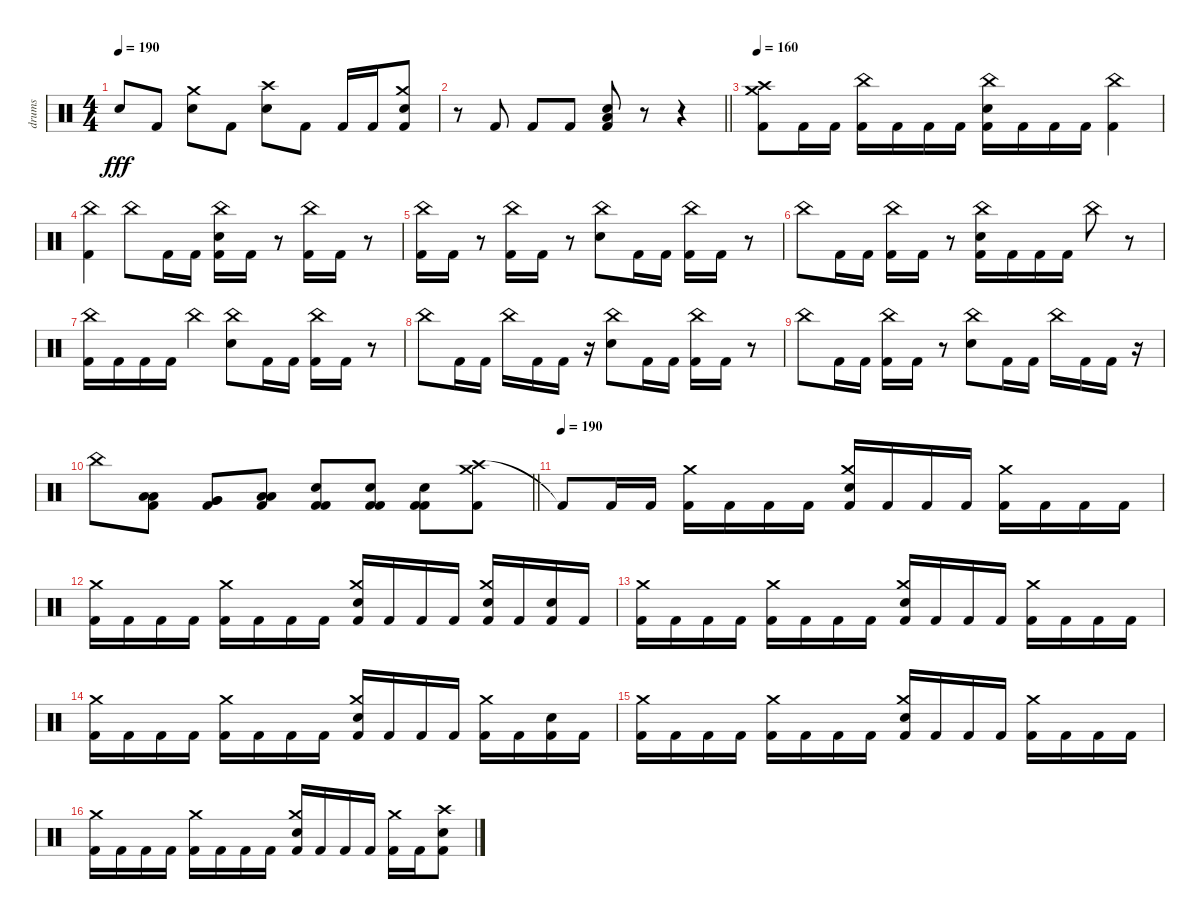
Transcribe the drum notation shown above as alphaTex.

\track ("drums" "drums") {instrument percussion}
\staff {score}
\articulation defaults
\ts (4 4)
\tempo 190
\clef neutral
\ks c "Snare (hit)"{t}.8{dy fff} "Kick (hit) 2".8
("Crash medium (hit)" "Electric Snare (hit)").8 "Kick (hit) 2".8 ("Crash high (hit)" "Electric Snare (hit)").8 "Kick (hit) 2".8 "Kick (hit) 2".16 "Kick (hit) 2".16 ("Crash medium (hit)" "Electric Snare (hit)" "Kick (hit) 2").8 |
\barLineRight lightlight
r.8 "Kick (hit) 2".8 "Kick (hit) 2".8 "Kick (hit) 2".8 ("Low Floor Tom (hit)" "Electric Snare (hit)" "Kick (hit) 2").8 r.8 r.4 |
\section ("" "")
\tempo 160
("Crash medium (hit)" "Crash high (hit)" "Kick (hit) 2").8 "Kick (hit) 2".16 "Kick (hit) 2".16 ("China (hit)" "Kick (hit) 2").16 "Kick (hit) 2".16 "Kick (hit) 2".16 "Kick (hit) 2".16 ("China (hit)" "Electric Snare (hit)" "Kick (hit) 2").16 "Kick (hit) 2".16 "Kick (hit) 2".16 "Kick (hit) 2".16 ("China (hit)" "Kick (hit) 2").4 |
("China (hit)" "Kick (hit) 2").4 "China (hit)".8 "Kick (hit) 2".16 "Kick (hit) 2".16 ("China (hit)" "Electric Snare (hit)" "Kick (hit) 2").16 "Kick (hit) 2".16 r.8 ("China (hit)" "Kick (hit) 2").16 "Kick (hit) 2".16 r.8 |
("China (hit)" "Kick (hit) 2").16 "Kick (hit) 2".16 r.8 ("China (hit)" "Kick (hit) 2").16 "Kick (hit) 2".16 r.8 ("China (hit)" "Electric Snare (hit)").8 "Kick (hit) 2".16 "Kick (hit) 2".16 ("China (hit)" "Kick (hit) 2").16 "Kick (hit) 2".16 r.8 |
"China (hit)".8 "Kick (hit) 2".16 "Kick (hit) 2".16 ("China (hit)" "Kick (hit) 2").16 "Kick (hit) 2".16 r.8 ("China (hit)" "Electric Snare (hit)" "Kick (hit) 2").16 "Kick (hit) 2".16 "Kick (hit) 2".16 "Kick (hit) 2".16 "China (hit)".8 r.8 |
("China (hit)" "Kick (hit) 2").16 "Kick (hit) 2".16 "Kick (hit) 2".16 "Kick (hit) 2".16 "China (hit)".4 ("China (hit)" "Electric Snare (hit)").8 "Kick (hit) 2".16 "Kick (hit) 2".16 ("China (hit)" "Kick (hit) 2").16 "Kick (hit) 2".16 r.8 |
"China (hit)".8 "Kick (hit) 2".16 "Kick (hit) 2".16 "China (hit)".16 "Kick (hit) 2".16 "Kick (hit) 2".16 r.16 ("China (hit)" "Electric Snare (hit)").8 "Kick (hit) 2".16 "Kick (hit) 2".16 ("China (hit)" "Kick (hit) 2").16 "Kick (hit) 2".16 r.8 |
"China (hit)".8 "Kick (hit) 2".16 "Kick (hit) 2".16 ("China (hit)" "Kick (hit) 2").16 "Kick (hit) 2".16 r.8 ("China (hit)" "Electric Snare (hit)").8 "Kick (hit) 2".16 "Kick (hit) 2".16 "China (hit)".16 "Kick (hit) 2".16 "Kick (hit) 2".16 r.16 |
\barLineRight lightlight "China (hit)".8
("Low Tom (hit)" "Low Tom (hit)" "Kick (hit) 2").8 ("Very Low Tom (hit)" "Very Low Tom (hit)" "Kick (hit) 2").8 ("Low Floor Tom (hit)" "Low Floor Tom (hit)" "Kick (hit) 2").8 ("Electric Snare (hit)" "Kick (hit) 2" "Kick (hit) 2").8 ("Electric Snare (hit)" "Kick (hit) 2" "Kick (hit) 2").8 ("Electric Snare (hit)" "Kick (hit) 2" "Kick (hit) 2").8 ("Crash high (hit)" "Crash medium (hit)" "Kick (hit) 2").8 |
\section ("" "")
\tempo (190)
"Kick (hit) 2"{t}.8 "Kick (hit) 2".16 "Kick (hit) 2".16 ("Crash medium (hit)" "Kick (hit) 2").16 "Kick (hit) 2".16 "Kick (hit) 2".16 "Kick (hit) 2".16 ("Crash medium (hit)" "Electric Snare (hit)" "Kick (hit) 2").16 "Kick (hit) 2".16 "Kick (hit) 2".16 "Kick (hit) 2".16 ("Crash medium (hit)" "Kick (hit) 2").16 "Kick (hit) 2".16 "Kick (hit) 2".16 "Kick (hit) 2".16 |
("Crash medium (hit)" "Kick (hit) 2").16 "Kick (hit) 2".16 "Kick (hit) 2".16 "Kick (hit) 2".16 ("Crash medium (hit)" "Kick (hit) 2").16 "Kick (hit) 2".16 "Kick (hit) 2".16 "Kick (hit) 2".16 ("Crash medium (hit)" "Electric Snare (hit)" "Kick (hit) 2").16 "Kick (hit) 2".16 "Kick (hit) 2".16 "Kick (hit) 2".16 ("Crash medium (hit)" "Electric Snare (hit)" "Kick (hit) 2").16 "Kick (hit) 2".16 ("Electric Snare (hit)" "Kick (hit) 2").16 "Kick (hit) 2".16 |
("Crash medium (hit)" "Kick (hit) 2").16 "Kick (hit) 2".16 "Kick (hit) 2".16 "Kick (hit) 2".16 ("Crash medium (hit)" "Kick (hit) 2").16 "Kick (hit) 2".16 "Kick (hit) 2".16 "Kick (hit) 2".16 ("Crash medium (hit)" "Electric Snare (hit)" "Kick (hit) 2").16 "Kick (hit) 2".16 "Kick (hit) 2".16 "Kick (hit) 2".16 ("Crash medium (hit)" "Kick (hit) 2").16 "Kick (hit) 2".16 "Kick (hit) 2".16 "Kick (hit) 2".16 |
("Crash medium (hit)" "Kick (hit) 2").16 "Kick (hit) 2".16 "Kick (hit) 2".16 "Kick (hit) 2".16 ("Crash medium (hit)" "Kick (hit) 2").16 "Kick (hit) 2".16 "Kick (hit) 2".16 "Kick (hit) 2".16 ("Crash medium (hit)" "Electric Snare (hit)" "Kick (hit) 2").16 "Kick (hit) 2".16 "Kick (hit) 2".16 "Kick (hit) 2".16 ("Crash medium (hit)" "Kick (hit) 2").16 "Kick (hit) 2".16 ("Electric Snare (hit)" "Kick (hit) 2").16 "Kick (hit) 2".16 |
("Crash medium (hit)" "Kick (hit) 2").16 "Kick (hit) 2".16 "Kick (hit) 2".16 "Kick (hit) 2".16 ("Crash medium (hit)" "Kick (hit) 2").16 "Kick (hit) 2".16 "Kick (hit) 2".16 "Kick (hit) 2".16 ("Crash medium (hit)" "Electric Snare (hit)" "Kick (hit) 2").16 "Kick (hit) 2".16 "Kick (hit) 2".16 "Kick (hit) 2".16 ("Crash medium (hit)" "Kick (hit) 2").16 "Kick (hit) 2".16 "Kick (hit) 2".16 "Kick (hit) 2".16 |
("Crash medium (hit)" "Kick (hit) 2").16 "Kick (hit) 2".16 "Kick (hit) 2".16 "Kick (hit) 2".16 ("Crash medium (hit)" "Kick (hit) 2").16 "Kick (hit) 2".16 "Kick (hit) 2".16 "Kick (hit) 2".16 ("Crash medium (hit)" "Electric Snare (hit)" "Kick (hit) 2").16 "Kick (hit) 2".16 "Kick (hit) 2".16 "Kick (hit) 2".16 ("Crash medium (hit)" "Kick (hit) 2").16 "Kick (hit) 2".16 ("Crash high (hit)" "Electric Snare (hit)" "Kick (hit) 2").8
